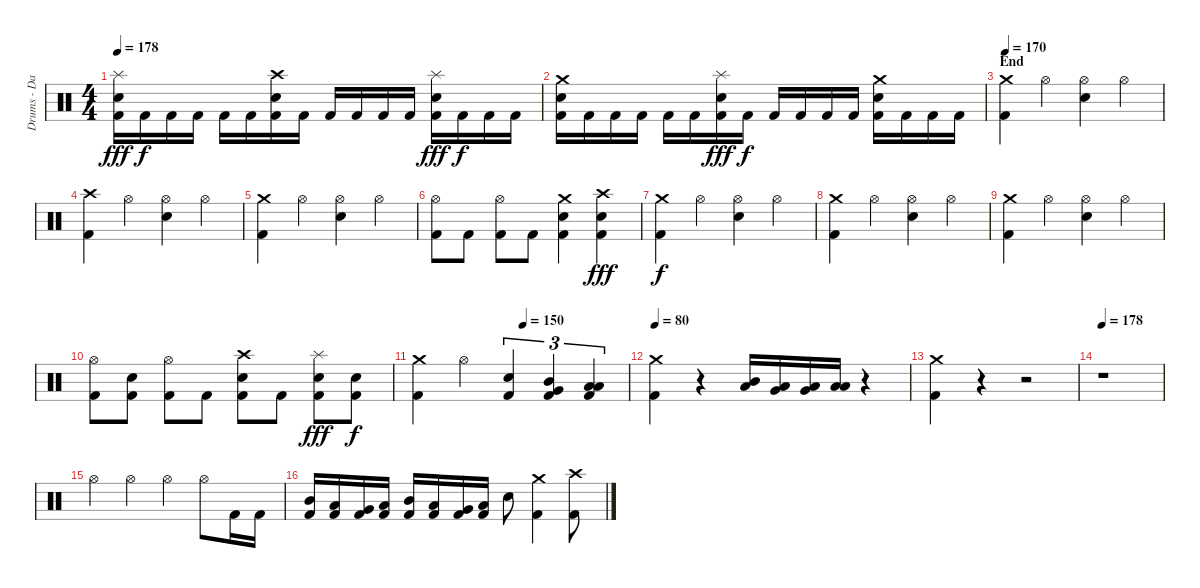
\track ("Drums - Daniel Zimmermann" "Drums - Da") {instrument percussion}
\staff {score}
\articulation defaults
\ts (4 4)
\tempo 178
\clef neutral
\ks c
("Kick (hit) 2" "Electric Snare (hit)" "Splash (hit)").16{dy fff} "Kick (hit) 2".16{dy f} "Kick (hit) 2".16 "Kick (hit) 2".16 "Kick (hit) 2".16 "Kick (hit) 2".16 ("Kick (hit) 2" "Electric Snare (hit)" "Crash high (hit)").16 "Kick (hit) 2".16 "Kick (hit) 2".16 "Kick (hit) 2".16 "Kick (hit) 2".16 "Kick (hit) 2".16 ("Kick (hit) 2" "Electric Snare (hit)" "Splash (hit)").16{dy fff} "Kick (hit) 2".16{dy f} "Kick (hit) 2".16 "Kick (hit) 2".16 |
("Kick (hit) 2" "Electric Snare (hit)" "Crash medium (hit)").16 "Kick (hit) 2".16 "Kick (hit) 2".16 "Kick (hit) 2".16 "Kick (hit) 2".16 "Kick (hit) 2".16 ("Kick (hit) 2" "Electric Snare (hit)" "Splash (hit)").16{dy fff} "Kick (hit) 2".16{dy f} "Kick (hit) 2".16 "Kick (hit) 2".16 "Kick (hit) 2".16 "Kick (hit) 2".16 ("Kick (hit) 2" "Electric Snare (hit)" "Crash medium (hit)").16 "Kick (hit) 2".16 "Kick (hit) 2".16 "Kick (hit) 2".16 |
\section ("" "End")
\tempo 170
("Kick (hit) 2" "Crash medium (hit)").4 "Hi-Hat (open)".4 ("Electric Snare (hit)" "Hi-Hat (open)").4 "Hi-Hat (open)".4 |
("Kick (hit) 2" "Crash high (hit)").4 "Hi-Hat (open)".4 ("Electric Snare (hit)" "Hi-Hat (open)").4 "Hi-Hat (open)".4 |
("Kick (hit) 2" "Crash medium (hit)").4 "Hi-Hat (open)".4 ("Electric Snare (hit)" "Hi-Hat (open)").4 "Hi-Hat (open)".4 |
("Kick (hit) 2" "Hi-Hat (open)").8 "Kick (hit) 2".8 ("Kick (hit) 2" "Hi-Hat (open)").8 "Kick (hit) 2".8 ("Kick (hit) 2" "Electric Snare (hit)" "Crash medium (hit)").4 ("Kick (hit) 2" "Electric Snare (hit)" "Crash high (hit)").4{dy fff} |
("Kick (hit) 2" "Crash medium (hit)").4{dy f} "Hi-Hat (open)".4 ("Electric Snare (hit)" "Hi-Hat (open)").4 "Hi-Hat (open)".4 |
("Kick (hit) 2" "Crash medium (hit)").4 "Hi-Hat (open)".4 ("Electric Snare (hit)" "Hi-Hat (open)").4 "Hi-Hat (open)".4 |
("Kick (hit) 2" "Crash medium (hit)").4 "Hi-Hat (open)".4 ("Electric Snare (hit)" "Hi-Hat (open)").4 "Hi-Hat (open)".4 |
("Kick (hit) 2" "Hi-Hat (open)").8 ("Kick (hit) 2" "Electric Snare (hit)").8 ("Kick (hit) 2" "Hi-Hat (open)").8 "Kick (hit) 2".8 ("Kick (hit) 2" "Electric Snare (hit)" "Crash high (hit)").8 "Kick (hit) 2".8 ("Kick (hit) 2" "Electric Snare (hit)" "Splash (hit)").8{dy fff} ("Kick (hit) 2" "Electric Snare (hit)").8{dy f} |
\tempo (150 0.5)
("Kick (hit) 2" "Crash medium (hit)").4 "Hi-Hat (open)".4 ("Kick (hit) 2" "Electric Snare (hit)").4{tu (3 2)} ("Kick (hit) 2" "Mid Tom (hit)" "Very Low Tom (hit)").4{tu (3 2)} ("Kick (hit) 2" "Low Tom (hit)" "Low Floor Tom (hit)").4{tu (3 2)} |
\tempo 80
("Kick (hit) 2" "Crash medium (hit)").4 r.4 ("Mid Tom (hit)" "Low Tom (hit)").16 ("Low Tom (hit)" "Very Low Tom (hit)").16 ("Very Low Tom (hit)" "Low Floor Tom (hit)").16 ("Low Floor Tom (hit)" "Low Floor Tom (hit)").16 r.4 |
("Kick (hit) 2" "Crash medium (hit)").4 r.4 r.2 |
\tempo 178
r.1 |
"Hi-Hat (open)".4 "Hi-Hat (open)".4 "Hi-Hat (open)".4 "Hi-Hat (open)".8 "Kick (hit) 2".16 "Kick (hit) 2".16 |
("Kick (hit) 2" "Mid Tom (hit)").16 ("Kick (hit) 2" "Low Tom (hit)").16 ("Kick (hit) 2" "Very Low Tom (hit)").16 ("Kick (hit) 2" "Low Floor Tom (hit)").16 ("Kick (hit) 2" "Mid Tom (hit)").16 ("Kick (hit) 2" "Low Tom (hit)").16 ("Kick (hit) 2" "Very Low Tom (hit)").16 ("Kick (hit) 2" "Low Floor Tom (hit)").16 "Electric Snare (hit)".8 ("Kick (hit) 2" "Crash medium (hit)").4 ("Kick (hit) 2" "Crash high (hit)").8
